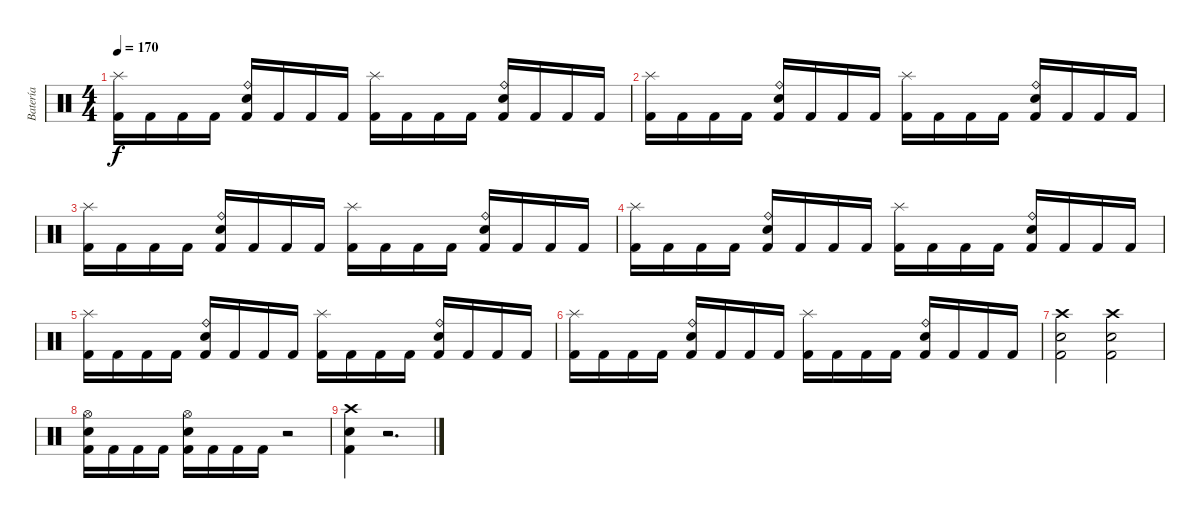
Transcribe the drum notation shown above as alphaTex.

\track ("Batería" "Batería") {instrument percussion}
\staff {score}
\articulation defaults
\ts (4 4)
\tempo 170
\clef neutral
\ks c
("Splash (hit)" "Kick (hit) 2").16{dy f} "Kick (hit) 2".16 "Kick (hit) 2".16 "Kick (hit) 2".16 ("Ride (bell)" "Snare (hit) 2" "Kick (hit) 2").16 "Kick (hit) 2".16 "Kick (hit) 2".16 "Kick (hit) 2".16 ("Splash (hit)" "Kick (hit) 2").16 "Kick (hit) 2".16 "Kick (hit) 2".16 "Kick (hit) 2".16 ("Ride (bell)" "Snare (hit) 2" "Kick (hit) 2").16 "Kick (hit) 2".16 "Kick (hit) 2".16 "Kick (hit) 2".16 |
("Splash (hit)" "Kick (hit) 2").16 "Kick (hit) 2".16 "Kick (hit) 2".16 "Kick (hit) 2".16 ("Ride (bell)" "Snare (hit) 2" "Kick (hit) 2").16 "Kick (hit) 2".16 "Kick (hit) 2".16 "Kick (hit) 2".16 ("Splash (hit)" "Kick (hit) 2").16 "Kick (hit) 2".16 "Kick (hit) 2".16 "Kick (hit) 2".16 ("Ride (bell)" "Snare (hit) 2" "Kick (hit) 2").16 "Kick (hit) 2".16 "Kick (hit) 2".16 "Kick (hit) 2".16 |
("Splash (hit)" "Kick (hit) 2").16 "Kick (hit) 2".16 "Kick (hit) 2".16 "Kick (hit) 2".16 ("Ride (bell)" "Snare (hit) 2" "Kick (hit) 2").16 "Kick (hit) 2".16 "Kick (hit) 2".16 "Kick (hit) 2".16 ("Splash (hit)" "Kick (hit) 2").16 "Kick (hit) 2".16 "Kick (hit) 2".16 "Kick (hit) 2".16 ("Ride (bell)" "Snare (hit) 2" "Kick (hit) 2").16 "Kick (hit) 2".16 "Kick (hit) 2".16 "Kick (hit) 2".16 |
("Splash (hit)" "Kick (hit) 2").16 "Kick (hit) 2".16 "Kick (hit) 2".16 "Kick (hit) 2".16 ("Ride (bell)" "Snare (hit) 2" "Kick (hit) 2").16 "Kick (hit) 2".16 "Kick (hit) 2".16 "Kick (hit) 2".16 ("Splash (hit)" "Kick (hit) 2").16 "Kick (hit) 2".16 "Kick (hit) 2".16 "Kick (hit) 2".16 ("Ride (bell)" "Snare (hit) 2" "Kick (hit) 2").16 "Kick (hit) 2".16 "Kick (hit) 2".16 "Kick (hit) 2".16 |
("Splash (hit)" "Kick (hit) 2").16 "Kick (hit) 2".16 "Kick (hit) 2".16 "Kick (hit) 2".16 ("Ride (bell)" "Snare (hit) 2" "Kick (hit) 2").16 "Kick (hit) 2".16 "Kick (hit) 2".16 "Kick (hit) 2".16 ("Splash (hit)" "Kick (hit) 2").16 "Kick (hit) 2".16 "Kick (hit) 2".16 "Kick (hit) 2".16 ("Ride (bell)" "Snare (hit) 2" "Kick (hit) 2").16 "Kick (hit) 2".16 "Kick (hit) 2".16 "Kick (hit) 2".16 |
("Splash (hit)" "Kick (hit) 2").16 "Kick (hit) 2".16 "Kick (hit) 2".16 "Kick (hit) 2".16 ("Ride (bell)" "Snare (hit) 2" "Kick (hit) 2").16 "Kick (hit) 2".16 "Kick (hit) 2".16 "Kick (hit) 2".16 ("Splash (hit)" "Kick (hit) 2").16 "Kick (hit) 2".16 "Kick (hit) 2".16 "Kick (hit) 2".16 ("Ride (bell)" "Snare (hit) 2" "Kick (hit) 2").16 "Kick (hit) 2".16 "Kick (hit) 2".16 "Kick (hit) 2".16 |
("Crash high (hit)" "Snare (hit) 2" "Kick (hit) 2").2 ("Crash high (hit)" "Snare (hit) 2" "Kick (hit) 2").2 |
("Hi-Hat (open)" "Snare (hit) 2" "Kick (hit) 2").16 "Kick (hit) 2".16 "Kick (hit) 2".16 "Kick (hit) 2".16 ("Hi-Hat (open)" "Snare (hit) 2" "Kick (hit) 2").16 "Kick (hit) 2".16 "Kick (hit) 2".16 "Kick (hit) 2".16 r.2 |
("Crash high (hit)" "Snare (hit) 2" "Kick (hit) 2").4 r.2{d}
